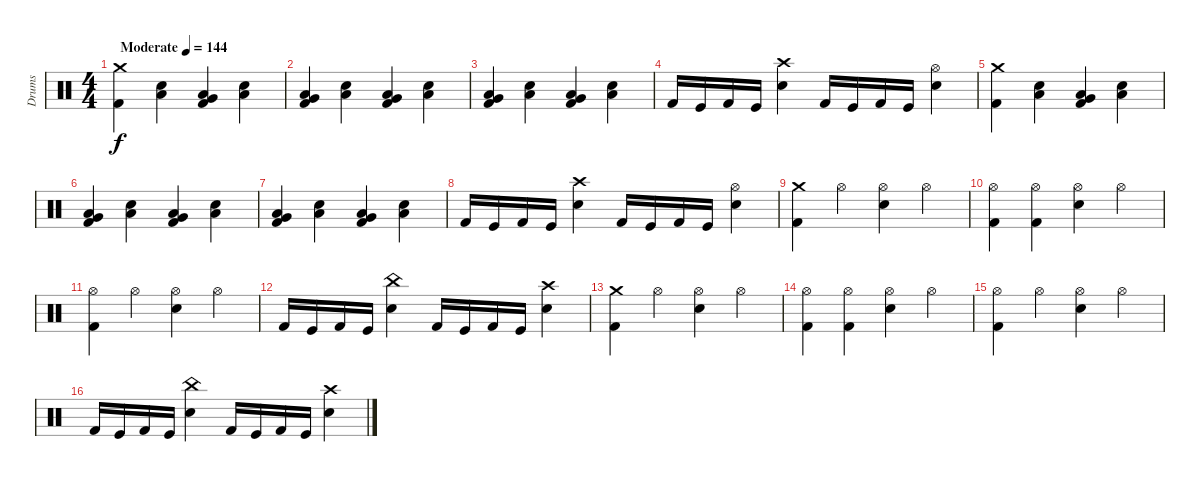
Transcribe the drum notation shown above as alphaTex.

\track ("Drums" "Drums") {instrument percussion}
\staff
\articulation defaults
\ts (4 4)
\tempo (144 "Moderate")
\clef neutral
\ks c
("Crash medium (hit)" "Kick (hit) 2").4{dy f} ("Electric Snare (hit)" "Low Floor Tom (hit)").4 ("Very Low Tom (hit)" "Low Floor Tom (hit)" "Kick (hit) 2").4 ("Electric Snare (hit)" "Low Floor Tom (hit)").4 |
("Very Low Tom (hit)" "Low Floor Tom (hit)" "Kick (hit) 2").4 ("Electric Snare (hit)" "Low Floor Tom (hit)").4 ("Very Low Tom (hit)" "Low Floor Tom (hit)" "Kick (hit) 2").4 ("Electric Snare (hit)" "Low Floor Tom (hit)").4 |
("Very Low Tom (hit)" "Low Floor Tom (hit)" "Kick (hit) 2").4 ("Electric Snare (hit)" "Low Floor Tom (hit)").4 ("Very Low Tom (hit)" "Low Floor Tom (hit)" "Kick (hit) 2").4 ("Electric Snare (hit)" "Low Floor Tom (hit)").4 |
"Kick (hit) 2".16 "Kick (hit)".16 "Kick (hit) 2".16 "Kick (hit)".16 ("Crash high (hit)" "Electric Snare (hit)").4 "Kick (hit) 2".16 "Kick (hit)".16 "Kick (hit) 2".16 "Kick (hit)".16 ("Hi-Hat (open)" "Electric Snare (hit)").4 |
("Crash medium (hit)" "Kick (hit) 2").4 ("Electric Snare (hit)" "Low Floor Tom (hit)").4 ("Very Low Tom (hit)" "Low Floor Tom (hit)" "Kick (hit) 2").4 ("Electric Snare (hit)" "Low Floor Tom (hit)").4 |
("Very Low Tom (hit)" "Low Floor Tom (hit)" "Kick (hit) 2").4 ("Electric Snare (hit)" "Low Floor Tom (hit)").4 ("Very Low Tom (hit)" "Low Floor Tom (hit)" "Kick (hit) 2").4 ("Electric Snare (hit)" "Low Floor Tom (hit)").4 |
("Very Low Tom (hit)" "Low Floor Tom (hit)" "Kick (hit) 2").4 ("Electric Snare (hit)" "Low Floor Tom (hit)").4 ("Very Low Tom (hit)" "Low Floor Tom (hit)" "Kick (hit) 2").4 ("Electric Snare (hit)" "Low Floor Tom (hit)").4 |
"Kick (hit) 2".16 "Kick (hit)".16 "Kick (hit) 2".16 "Kick (hit)".16 ("Crash high (hit)" "Electric Snare (hit)").4 "Kick (hit) 2".16 "Kick (hit)".16 "Kick (hit) 2".16 "Kick (hit)".16 ("Hi-Hat (open)" "Electric Snare (hit)").4 |
("Crash medium (hit)" "Kick (hit) 2").4 "Hi-Hat (open)".4 ("Hi-Hat (open)" "Electric Snare (hit)").4 "Hi-Hat (open)".4 |
("Hi-Hat (open)" "Kick (hit) 2").4 ("Hi-Hat (open)" "Kick (hit) 2").4 ("Hi-Hat (open)" "Electric Snare (hit)").4 "Hi-Hat (open)".4 |
("Hi-Hat (open)" "Kick (hit) 2").4 "Hi-Hat (open)".4 ("Hi-Hat (open)" "Electric Snare (hit)").4 "Hi-Hat (open)".4 |
"Kick (hit) 2".16 "Kick (hit)".16 "Kick (hit) 2".16 "Kick (hit)".16 ("China (hit)" "Electric Snare (hit)").4 "Kick (hit) 2".16 "Kick (hit)".16 "Kick (hit) 2".16 "Kick (hit)".16 ("Crash high (hit)" "Electric Snare (hit)").4 |
("Crash medium (hit)" "Kick (hit) 2").4 "Hi-Hat (open)".4 ("Hi-Hat (open)" "Electric Snare (hit)").4 "Hi-Hat (open)".4 |
("Hi-Hat (open)" "Kick (hit) 2").4 ("Hi-Hat (open)" "Kick (hit) 2").4 ("Hi-Hat (open)" "Electric Snare (hit)").4 "Hi-Hat (open)".4 |
("Hi-Hat (open)" "Kick (hit) 2").4 "Hi-Hat (open)".4 ("Hi-Hat (open)" "Electric Snare (hit)").4 "Hi-Hat (open)".4 |
"Kick (hit) 2".16 "Kick (hit)".16 "Kick (hit) 2".16 "Kick (hit)".16 ("China (hit)" "Electric Snare (hit)").4 "Kick (hit) 2".16 "Kick (hit)".16 "Kick (hit) 2".16 "Kick (hit)".16 ("Crash high (hit)" "Electric Snare (hit)").4
